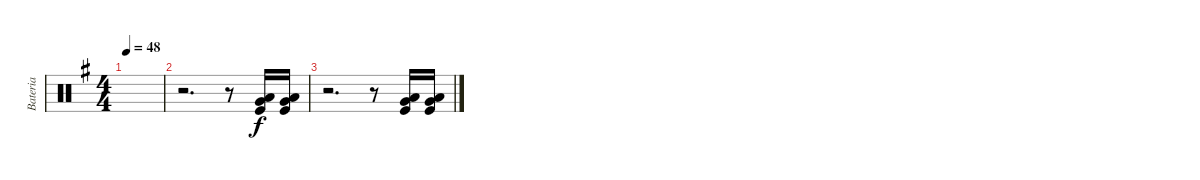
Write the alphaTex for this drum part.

\track ("Bateria" "Bateria") {instrument percussion}
\staff {score}
\articulation defaults
\ts (4 4)
\tempo 48
\clef neutral
\ks g
|
r.2{d} r.8{balance 4} ("Kick (hit)" "Very Low Tom (hit)" "Low Floor Tom (hit)").16 ("Kick (hit)" "Very Low Tom (hit)" "Low Floor Tom (hit)").16 |
r.2{d} r.8 ("Kick (hit)" "Very Low Tom (hit)" "Low Floor Tom (hit)").16 ("Kick (hit)" "Very Low Tom (hit)" "Low Floor Tom (hit)").16
